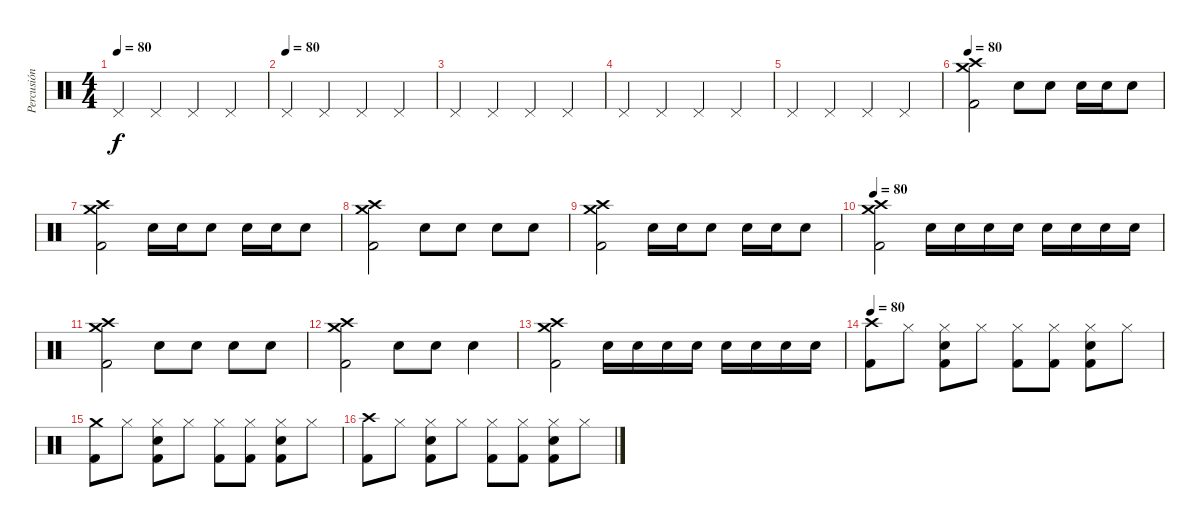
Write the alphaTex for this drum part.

\track ("Percusión" "Percusión") {instrument percussion}
\staff {score}
\articulation defaults
\ts (4 4)
\tempo 80
\clef neutral
\ks c "Pedal Hi-Hat (hit)".4{dy f} "Pedal Hi-Hat (hit)".4 "Pedal Hi-Hat (hit)".4 "Pedal Hi-Hat (hit)".4
|
\tempo (80)
"Pedal Hi-Hat (hit)".4 "Pedal Hi-Hat (hit)".4 "Pedal Hi-Hat (hit)".4 "Pedal Hi-Hat (hit)".4 |
"Pedal Hi-Hat (hit)".4 "Pedal Hi-Hat (hit)".4 "Pedal Hi-Hat (hit)".4 "Pedal Hi-Hat (hit)".4 |
"Pedal Hi-Hat (hit)".4 "Pedal Hi-Hat (hit)".4 "Pedal Hi-Hat (hit)".4 "Pedal Hi-Hat (hit)".4 |
"Pedal Hi-Hat (hit)".4 "Pedal Hi-Hat (hit)".4 "Pedal Hi-Hat (hit)".4 "Pedal Hi-Hat (hit)".4 |
\tempo 80
("Crash high (hit)" "Crash medium (hit)" "Kick (hit) 2").2 "Snare (hit) 2".8 "Snare (hit) 2".8 "Snare (hit) 2".16 "Snare (hit) 2".16 "Snare (hit) 2".8 |
("Crash high (hit)" "Crash medium (hit)" "Kick (hit) 2").2 "Snare (hit) 2".16 "Snare (hit) 2".16 "Snare (hit) 2".8 "Snare (hit) 2".16 "Snare (hit) 2".16 "Snare (hit) 2".8 |
("Crash high (hit)" "Crash medium (hit)" "Kick (hit) 2").2 "Snare (hit) 2".8 "Snare (hit) 2".8 "Snare (hit) 2".8 "Snare (hit) 2".8 |
("Crash high (hit)" "Crash medium (hit)" "Kick (hit) 2").2 "Snare (hit) 2".16 "Snare (hit) 2".16 "Snare (hit) 2".8 "Snare (hit) 2".16 "Snare (hit) 2".16 "Snare (hit) 2".8 |
\tempo 80
("Crash high (hit)" "Crash medium (hit)" "Kick (hit) 2").2 "Snare (hit) 2".16 "Snare (hit) 2".16 "Snare (hit) 2".16 "Snare (hit) 2".16 "Snare (hit) 2".16 "Snare (hit) 2".16 "Snare (hit) 2".16 "Snare (hit) 2".16 |
("Crash high (hit)" "Crash medium (hit)" "Kick (hit) 2").2 "Snare (hit) 2".8 "Snare (hit) 2".8 "Snare (hit) 2".8 "Snare (hit) 2".8 |
("Crash high (hit)" "Crash medium (hit)" "Kick (hit) 2").2 "Snare (hit) 2".8 "Snare (hit) 2".8 "Snare (hit) 2".4 |
("Crash high (hit)" "Crash medium (hit)" "Kick (hit) 2").2 "Snare (hit) 2".16 "Snare (hit) 2".16 "Snare (hit) 2".16 "Snare (hit) 2".16 "Snare (hit) 2".16 "Snare (hit) 2".16 "Snare (hit) 2".16 "Snare (hit) 2".16 |
\tempo 80
("Crash high (hit)" "Kick (hit) 2").8 "Hi-Hat (closed)".8 ("Hi-Hat (closed)" "Kick (hit) 2" "Snare (hit) 2").8 "Hi-Hat (closed)".8 ("Hi-Hat (closed)" "Kick (hit) 2").8 ("Hi-Hat (closed)" "Kick (hit) 2").8 ("Hi-Hat (closed)" "Kick (hit) 2" "Snare (hit) 2").8 "Hi-Hat (closed)".8 |
("Crash medium (hit)" "Kick (hit) 2").8 "Hi-Hat (closed)".8 ("Hi-Hat (closed)" "Kick (hit) 2" "Snare (hit) 2").8 "Hi-Hat (closed)".8 ("Hi-Hat (closed)" "Kick (hit) 2").8 ("Hi-Hat (closed)" "Kick (hit) 2").8 ("Hi-Hat (closed)" "Kick (hit) 2" "Snare (hit) 2").8 "Hi-Hat (closed)".8 |
("Crash high (hit)" "Kick (hit) 2").8 "Hi-Hat (closed)".8 ("Hi-Hat (closed)" "Kick (hit) 2" "Snare (hit) 2").8 "Hi-Hat (closed)".8 ("Hi-Hat (closed)" "Kick (hit) 2").8 ("Hi-Hat (closed)" "Kick (hit) 2").8 ("Hi-Hat (closed)" "Kick (hit) 2" "Snare (hit) 2").8 "Hi-Hat (closed)".8
